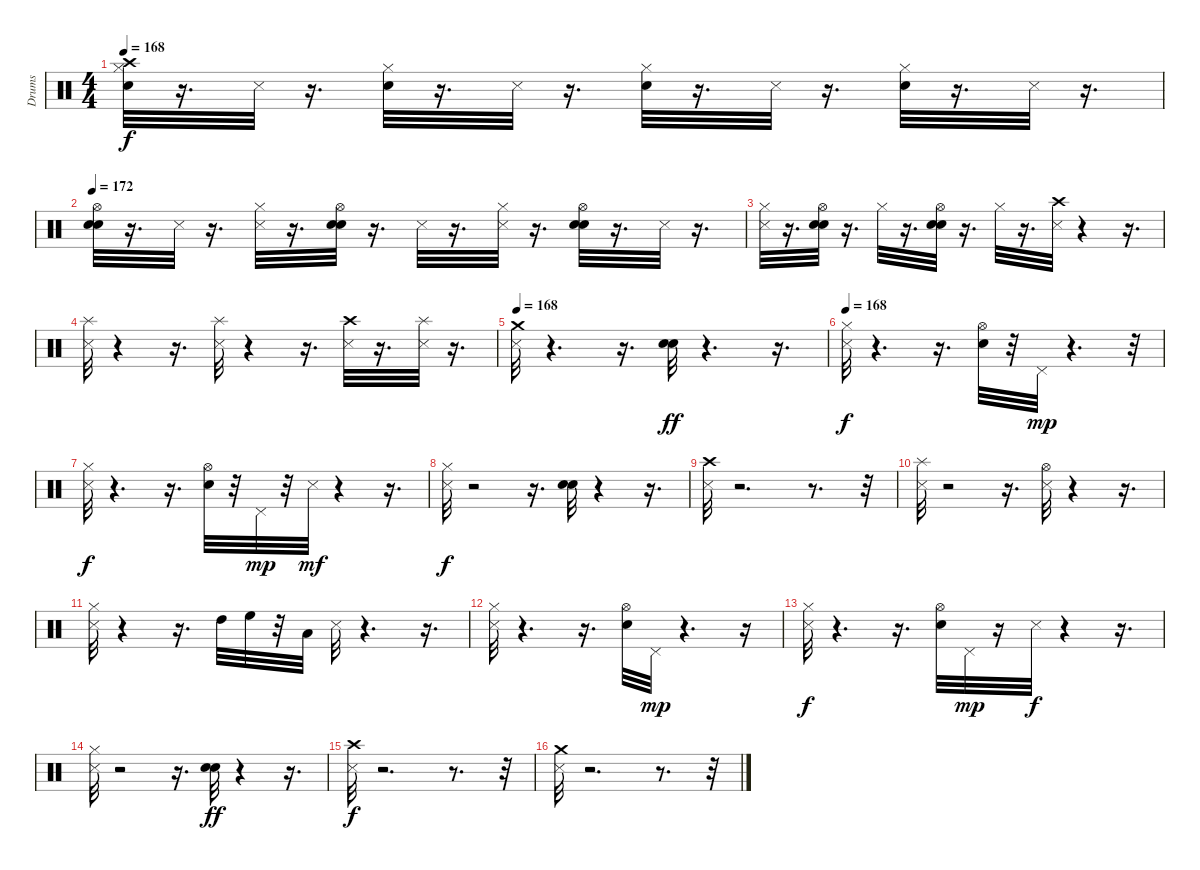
\track ("Drums" "Drums") {instrument percussion}
\staff {score}
\articulation defaults
\ts (4 4)
\tempo 168
\clef neutral
\ks c
("Crash high (hit)" "Snare (hit) 2" "Hi-Hat (closed)").32{dy f} r.16{d} "Metronome (hit)".32 r.16{d} ("Snare (hit) 2" "Hi-Hat (closed)").32 r.16{d} "Metronome (hit)".32 r.16{d} ("Snare (hit) 2" "Hi-Hat (closed)").32 r.16{d} "Metronome (hit)".32 r.16{d} ("Snare (hit) 2" "Hi-Hat (closed)").32 r.16{d} "Metronome (hit)".32 r.16{d} |
\tempo 172
("Electric Snare (hit)" "Hi-Hat (open)" "Snare (hit) 2").32 r.16{d} "Metronome (hit)".32 r.16{d} ("Hi-Hat (closed)" "Metronome (hit)").32 r.16{d} ("Electric Snare (hit)" "Snare (hit) 2" "Hi-Hat (open)").32 r.16{d} "Metronome (hit)".32 r.16{d} ("Hi-Hat (closed)" "Metronome (hit)").32 r.16{d} ("Electric Snare (hit)" "Hi-Hat (open)" "Snare (hit) 2").32 r.16{d} "Metronome (hit)".32 r.16{d} |
("Hi-Hat (closed)" "Metronome (hit)").32 r.16{d} ("Electric Snare (hit)" "Hi-Hat (open)" "Snare (hit) 2").32 r.16{d} "Hi-Hat (closed)".32 r.16{d} ("Electric Snare (hit)" "Hi-Hat (open)" "Snare (hit) 2").32 r.16{d} "Hi-Hat (closed)".32 r.16{d} ("Crash high (hit)" "Metronome (hit)").32 r.4 r.16{d} |
("Splash (hit)" "Metronome (hit)").32 r.4 r.16{d} ("Splash (hit)" "Metronome (hit)").32 r.4 r.16{d} ("Crash high (hit)" "Metronome (hit)").32 r.16{d} ("Splash (hit)" "Metronome (hit)").32 r.16{d} |
\tempo 168
("Crash medium (hit)" "Metronome (hit)").32 r.4{d} r.16{d} ("Snare (hit) 2" "Electric Snare (hit)").32{dy ff} r.4{d} r.16{d} |
\tempo 168
("Hi-Hat (closed)" "Metronome (hit)").32{dy f} r.4{d} r.16{d} ("Hi-Hat (open)" "Snare (hit) 2").32 r.32 "Pedal Hi-Hat (hit)".32{dy mp} r.4{d} r.32 |
("Hi-Hat (closed)" "Metronome (hit)").32{dy f} r.4{d} r.16{d} ("Hi-Hat (open)" "Snare (hit) 2").32 r.32 "Pedal Hi-Hat (hit)".32{dy mp} r.32 "Metronome (hit)".32{dy mf} r.4 r.16{d} |
("Hi-Hat (closed)" "Metronome (hit)").32{dy f} r.2 r.16{d} ("Snare (hit) 2" "Electric Snare (hit)").32 r.4 r.16{d} |
("Crash high (hit)" "Metronome (hit)").32 r.2{d} r.8{d} r.32 |
("Splash (hit)" "Metronome (hit)").32 r.2 r.16{d} ("Metronome (hit)" "Hi-Hat (open)").32 r.4 r.16{d} |
("Hi-Hat (closed)" "Metronome (hit)").32 r.4 r.16{d} "High Tom (hit)".32 "High Floor Tom (hit)".32 r.32 "Low Tom (hit)".32 "Metronome (hit)".32 r.4{d} r.16{d} |
("Hi-Hat (closed)" "Metronome (hit)").32 r.4{d} r.16{d} ("Hi-Hat (open)" "Snare (hit) 2").32 "Pedal Hi-Hat (hit)".32{dy mp} r.4{d} r.16 |
("Hi-Hat (closed)" "Metronome (hit)").32{dy f} r.4{d} r.16{d} ("Hi-Hat (open)" "Snare (hit) 2").32 "Pedal Hi-Hat (hit)".32{dy mp} r.16 "Metronome (hit)".32{dy f} r.4 r.16{d} |
("Hi-Hat (closed)" "Metronome (hit)").32 r.2 r.16{d} ("Electric Snare (hit)" "Snare (hit) 2").32{dy ff} r.4 r.16{d} |
("Crash high (hit)" "Metronome (hit)").32{dy f} r.2{d} r.8{d} r.32 |
("Crash medium (hit)" "Metronome (hit)").32 r.2{d} r.8{d} r.32
